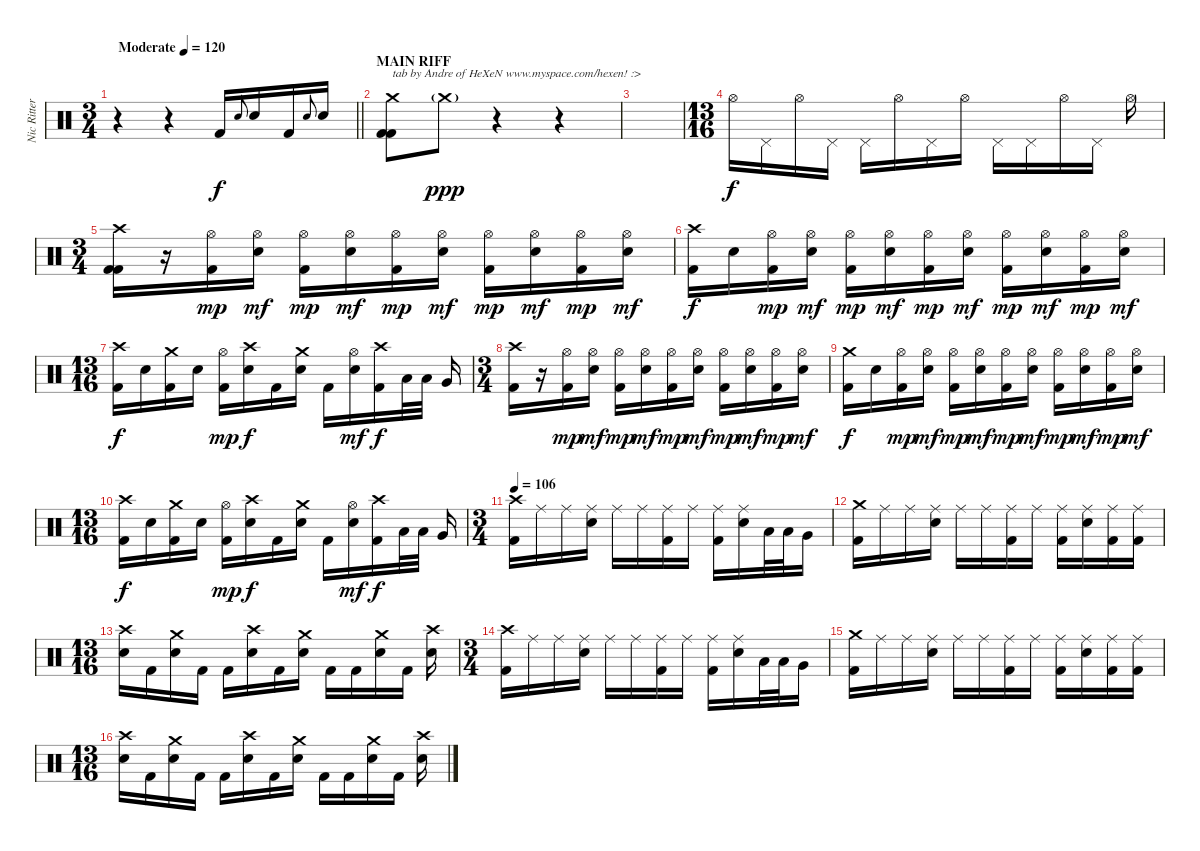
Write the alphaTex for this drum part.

\track ("Nic Ritter" "Nic Ritter") {instrument percussion}
\staff {score}
\articulation defaults
\ts (3 4)
\tempo (120 "Moderate")
\tempo 112
\tempo (120 "Moderate")
\clef neutral
\barLineRight lightlight
\ks c
r.4{dy f} r.4 "Kick (hit) 2".16 "Electric Snare (hit)".8{gr onbeat} "Electric Snare (hit)".16 "Kick (hit) 2".16 "Electric Snare (hit)".8{gr onbeat} "Electric Snare (hit)".16 |
\section ("" "MAIN RIFF")
("Crash medium (hit)" "Kick (hit) 2" "Kick (hit) 2").8{txt "tab by Andre of HeXeN www.myspace.com/hexen! :>"} "Crash medium (hit)"{g}.8{dy ppp} r.4 r.4 |
|
\ts (13 16)
"Hi-Hat (open)".16{dy f} "Pedal Hi-Hat (hit)".16 "Hi-Hat (open)".16 "Pedal Hi-Hat (hit)".16 "Pedal Hi-Hat (hit)".16 "Hi-Hat (open)".16 "Pedal Hi-Hat (hit)".16 "Hi-Hat (open)".16 "Pedal Hi-Hat (hit)".16 "Pedal Hi-Hat (hit)".16 "Hi-Hat (open)".16 "Pedal Hi-Hat (hit)".16 "Hi-Hat (open)".16 |
\ts (3 4)
("Crash high (hit)" "Kick (hit) 2" "Kick (hit) 2").16 r.16 ("Hi-Hat (open)" "Kick (hit) 2").16{dy mp} ("Hi-Hat (open)" "Electric Snare (hit)").16{dy mf} ("Hi-Hat (open)" "Kick (hit) 2").16{dy mp} ("Hi-Hat (open)" "Electric Snare (hit)").16{dy mf} ("Hi-Hat (open)" "Kick (hit) 2").16{dy mp} ("Hi-Hat (open)" "Electric Snare (hit)").16{dy mf} ("Hi-Hat (open)" "Kick (hit) 2").16{dy mp} ("Hi-Hat (open)" "Electric Snare (hit)").16{dy mf} ("Hi-Hat (open)" "Kick (hit) 2").16{dy mp} ("Hi-Hat (open)" "Electric Snare (hit)").16{dy mf} |
("Crash high (hit)" "Kick (hit) 2").16{dy f} "Electric Snare (hit)".16 ("Hi-Hat (open)" "Kick (hit) 2").16{dy mp} ("Hi-Hat (open)" "Electric Snare (hit)").16{dy mf} ("Hi-Hat (open)" "Kick (hit) 2").16{dy mp} ("Hi-Hat (open)" "Electric Snare (hit)").16{dy mf} ("Hi-Hat (open)" "Kick (hit) 2").16{dy mp} ("Hi-Hat (open)" "Electric Snare (hit)").16{dy mf} ("Hi-Hat (open)" "Kick (hit) 2").16{dy mp} ("Hi-Hat (open)" "Electric Snare (hit)").16{dy mf} ("Hi-Hat (open)" "Kick (hit) 2").16{dy mp} ("Hi-Hat (open)" "Electric Snare (hit)").16{dy mf} |
\ts (13 16)
("Crash high (hit)" "Kick (hit) 2").16{dy f} "Electric Snare (hit)".16 ("Crash medium (hit)" "Kick (hit) 2").16 "Electric Snare (hit)".16 ("Hi-Hat (open)" "Kick (hit) 2").16{dy mp} ("Crash high (hit)" "Electric Snare (hit)").16{dy f} "Kick (hit) 2".16 ("Crash medium (hit)" "Electric Snare (hit)").16 "Kick (hit) 2".16 ("Hi-Hat (open)" "Electric Snare (hit)").16{dy mf} ("Crash high (hit)" "Kick (hit) 2").16{dy f} "Low Tom (hit)".32 "Low Tom (hit)".32 "Very Low Tom (hit)".16 |
\ts (3 4)
("Crash high (hit)" "Kick (hit) 2").16 r.16 ("Hi-Hat (open)" "Kick (hit) 2").16{dy mp} ("Hi-Hat (open)" "Electric Snare (hit)").16{dy mf} ("Hi-Hat (open)" "Kick (hit) 2").16{dy mp} ("Hi-Hat (open)" "Electric Snare (hit)").16{dy mf} ("Hi-Hat (open)" "Kick (hit) 2").16{dy mp} ("Hi-Hat (open)" "Electric Snare (hit)").16{dy mf} ("Hi-Hat (open)" "Kick (hit) 2").16{dy mp} ("Hi-Hat (open)" "Electric Snare (hit)").16{dy mf} ("Hi-Hat (open)" "Kick (hit) 2").16{dy mp} ("Hi-Hat (open)" "Electric Snare (hit)").16{dy mf} |
("Crash medium (hit)" "Kick (hit) 2").16{dy f} "Electric Snare (hit)".16 ("Hi-Hat (open)" "Kick (hit) 2").16{dy mp} ("Hi-Hat (open)" "Electric Snare (hit)").16{dy mf} ("Hi-Hat (open)" "Kick (hit) 2").16{dy mp} ("Hi-Hat (open)" "Electric Snare (hit)").16{dy mf} ("Hi-Hat (open)" "Kick (hit) 2").16{dy mp} ("Hi-Hat (open)" "Electric Snare (hit)").16{dy mf} ("Hi-Hat (open)" "Kick (hit) 2").16{dy mp} ("Hi-Hat (open)" "Electric Snare (hit)").16{dy mf} ("Hi-Hat (open)" "Kick (hit) 2").16{dy mp} ("Hi-Hat (open)" "Electric Snare (hit)").16{dy mf} |
\ts (13 16)
("Crash high (hit)" "Kick (hit) 2").16{dy f} "Electric Snare (hit)".16 ("Crash medium (hit)" "Kick (hit) 2").16 "Electric Snare (hit)".16 ("Hi-Hat (open)" "Kick (hit) 2").16{dy mp} ("Crash high (hit)" "Electric Snare (hit)").16{dy f} "Kick (hit) 2".16 ("Crash medium (hit)" "Electric Snare (hit)").16 "Kick (hit) 2".16 ("Hi-Hat (open)" "Electric Snare (hit)").16{dy mf} ("Crash high (hit)" "Kick (hit) 2").16{dy f} "Low Tom (hit)".32 "Low Tom (hit)".32 "Very Low Tom (hit)".16 |
\ts (3 4)
\tempo 106
("Crash high (hit)" "Kick (hit) 2").16 "Ride (middle)".16 "Ride (middle)".16 ("Ride (middle)" "Electric Snare (hit)").16 "Ride (middle)".16 "Ride (middle)".16 ("Ride (middle)" "Kick (hit) 2").16 "Ride (middle)".16 ("Ride (middle)" "Kick (hit) 2").16 ("Ride (middle)" "Electric Snare (hit)").16 "Low Tom (hit)".32 "Low Tom (hit)".32 "Very Low Tom (hit)".16 |
("Crash medium (hit)" "Kick (hit) 2").16 "Ride (middle)".16 "Ride (middle)".16 ("Ride (middle)" "Electric Snare (hit)").16 "Ride (middle)".16 "Ride (middle)".16 ("Ride (middle)" "Kick (hit) 2").16 "Ride (middle)".16 ("Ride (middle)" "Kick (hit) 2").16 ("Ride (middle)" "Electric Snare (hit)").16 ("Ride (middle)" "Kick (hit) 2").16 ("Ride (middle)" "Kick (hit) 2").16 |
\ts (13 16)
("Crash high (hit)" "Electric Snare (hit)").16 "Kick (hit) 2".16 ("Crash medium (hit)" "Electric Snare (hit)").16 "Kick (hit) 2".16 "Kick (hit) 2".16 ("Crash high (hit)" "Electric Snare (hit)").16 "Kick (hit) 2".16 ("Crash medium (hit)" "Electric Snare (hit)").16 "Kick (hit) 2".16 "Kick (hit) 2".16 ("Crash medium (hit)" "Electric Snare (hit)").16 "Kick (hit) 2".16 ("Crash high (hit)" "Electric Snare (hit)").16 |
\ts (3 4)
("Crash high (hit)" "Kick (hit) 2").16 "Ride (middle)".16 "Ride (middle)".16 ("Ride (middle)" "Electric Snare (hit)").16 "Ride (middle)".16 "Ride (middle)".16 ("Ride (middle)" "Kick (hit) 2").16 "Ride (middle)".16 ("Ride (middle)" "Kick (hit) 2").16 ("Ride (middle)" "Electric Snare (hit)").16 "Low Tom (hit)".32 "Low Tom (hit)".32 "Very Low Tom (hit)".16 |
("Crash medium (hit)" "Kick (hit) 2").16 "Ride (middle)".16 "Ride (middle)".16 ("Ride (middle)" "Electric Snare (hit)").16 "Ride (middle)".16 "Ride (middle)".16 ("Ride (middle)" "Kick (hit) 2").16 "Ride (middle)".16 ("Ride (middle)" "Kick (hit) 2").16 ("Ride (middle)" "Electric Snare (hit)").16 ("Ride (middle)" "Kick (hit) 2").16 ("Ride (middle)" "Kick (hit) 2").16 |
\ts (13 16)
("Crash high (hit)" "Electric Snare (hit)").16 "Kick (hit) 2".16 ("Crash medium (hit)" "Electric Snare (hit)").16 "Kick (hit) 2".16 "Kick (hit) 2".16 ("Crash high (hit)" "Electric Snare (hit)").16 "Kick (hit) 2".16 ("Crash medium (hit)" "Electric Snare (hit)").16 "Kick (hit) 2".16 "Kick (hit) 2".16 ("Crash medium (hit)" "Electric Snare (hit)").16 "Kick (hit) 2".16 ("Crash high (hit)" "Electric Snare (hit)").16
